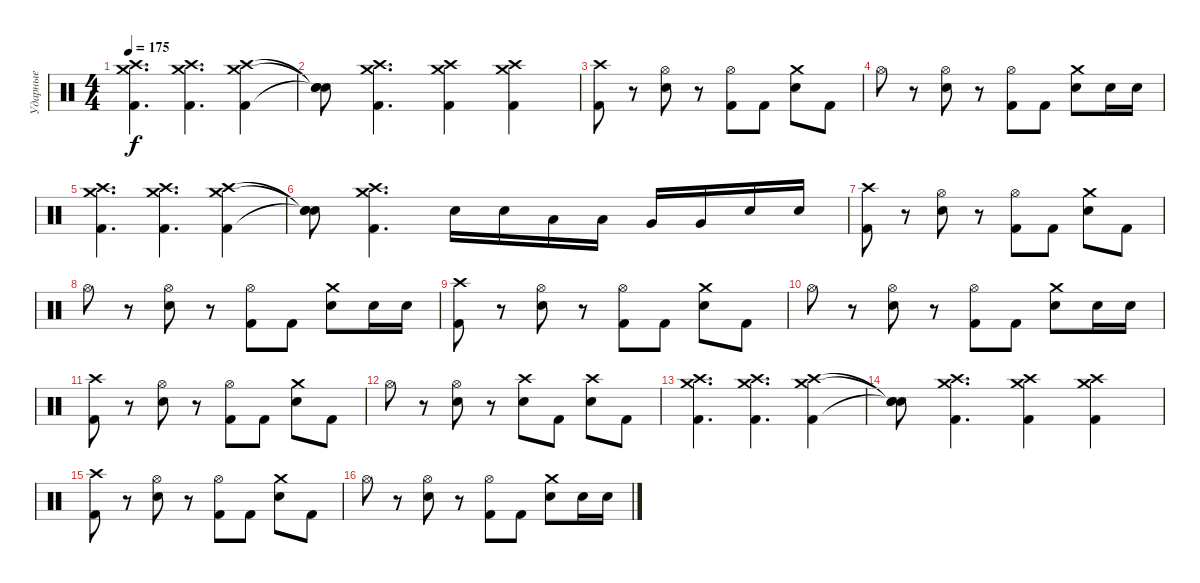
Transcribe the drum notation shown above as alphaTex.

\track ("Ударные" "Ударные") {instrument percussion}
\staff
\articulation defaults
\ts (4 4)
\tempo 175
\clef neutral
\ks c
("Kick (hit) 2" "Crash high (hit)" "Crash medium (hit)").4{d dy f} ("Kick (hit) 2" "Crash high (hit)" "Crash medium (hit)").4{d} ("Kick (hit) 2" "Crash high (hit)" "Crash medium (hit)").4 |
("Snare (hit)"{t} "Snare (hit)"{t} "Snare (hit)"{t}).8 ("Kick (hit) 2" "Crash high (hit)" "Crash medium (hit)").4{d} ("Kick (hit) 2" "Crash high (hit)" "Crash medium (hit)").4 ("Kick (hit) 2" "Crash high (hit)" "Crash medium (hit)").4 |
("Kick (hit) 2" "Crash high (hit)").8 r.8 ("Electric Snare (hit)" "Hi-Hat (open)").8 r.8 ("Kick (hit) 2" "Hi-Hat (open)").8 "Kick (hit) 2".8 ("Electric Snare (hit)" "Crash medium (hit)").8 "Kick (hit) 2".8 |
"Hi-Hat (open)".8 r.8 ("Electric Snare (hit)" "Hi-Hat (open)").8 r.8 ("Kick (hit) 2" "Hi-Hat (open)").8 "Kick (hit) 2".8 ("Electric Snare (hit)" "Crash medium (hit)").8 "Electric Snare (hit)".16 "Electric Snare (hit)".16 |
("Kick (hit) 2" "Crash high (hit)" "Crash medium (hit)").4{d} ("Kick (hit) 2" "Crash high (hit)" "Crash medium (hit)").4{d} ("Kick (hit) 2" "Crash high (hit)" "Crash medium (hit)").4 |
("Snare (hit)"{t} "Snare (hit)"{t} "Snare (hit)"{t}).8 ("Kick (hit) 2" "Crash high (hit)" "Crash medium (hit)").4{d} "Electric Snare (hit)".16 "Electric Snare (hit)".16 "Low Tom (hit)".16 "Low Tom (hit)".16 "Very Low Tom (hit)".16 "Very Low Tom (hit)".16 "Electric Snare (hit)".16 "Electric Snare (hit)".16 |
("Kick (hit) 2" "Crash high (hit)").8 r.8 ("Electric Snare (hit)" "Hi-Hat (open)").8 r.8 ("Kick (hit) 2" "Hi-Hat (open)").8 "Kick (hit) 2".8 ("Electric Snare (hit)" "Crash medium (hit)").8 "Kick (hit) 2".8 |
"Hi-Hat (open)".8 r.8 ("Electric Snare (hit)" "Hi-Hat (open)").8 r.8 ("Kick (hit) 2" "Hi-Hat (open)").8 "Kick (hit) 2".8 ("Electric Snare (hit)" "Crash medium (hit)").8 "Electric Snare (hit)".16 "Electric Snare (hit)".16 |
("Kick (hit) 2" "Crash high (hit)").8 r.8 ("Electric Snare (hit)" "Hi-Hat (open)").8 r.8 ("Kick (hit) 2" "Hi-Hat (open)").8 "Kick (hit) 2".8 ("Electric Snare (hit)" "Crash medium (hit)").8 "Kick (hit) 2".8 |
"Hi-Hat (open)".8 r.8 ("Electric Snare (hit)" "Hi-Hat (open)").8 r.8 ("Kick (hit) 2" "Hi-Hat (open)").8 "Kick (hit) 2".8 ("Electric Snare (hit)" "Crash medium (hit)").8 "Electric Snare (hit)".16 "Electric Snare (hit)".16 |
("Kick (hit) 2" "Crash high (hit)").8 r.8 ("Electric Snare (hit)" "Hi-Hat (open)").8 r.8 ("Kick (hit) 2" "Hi-Hat (open)").8 "Kick (hit) 2".8 ("Electric Snare (hit)" "Crash medium (hit)").8 "Kick (hit) 2".8 |
"Hi-Hat (open)".8 r.8 ("Electric Snare (hit)" "Hi-Hat (open)").8 r.8 ("Electric Snare (hit)" "Crash high (hit)").8 "Kick (hit) 2".8 ("Electric Snare (hit)" "Crash high (hit)").8 "Kick (hit) 2".8 |
("Kick (hit) 2" "Crash high (hit)" "Crash medium (hit)").4{d} ("Kick (hit) 2" "Crash high (hit)" "Crash medium (hit)").4{d} ("Kick (hit) 2" "Crash high (hit)" "Crash medium (hit)").4 |
("Snare (hit)"{t} "Snare (hit)"{t} "Snare (hit)"{t}).8 ("Kick (hit) 2" "Crash high (hit)" "Crash medium (hit)").4{d} ("Kick (hit) 2" "Crash high (hit)" "Crash medium (hit)").4 ("Kick (hit) 2" "Crash high (hit)" "Crash medium (hit)").4 |
("Kick (hit) 2" "Crash high (hit)").8 r.8 ("Electric Snare (hit)" "Hi-Hat (open)").8 r.8 ("Kick (hit) 2" "Hi-Hat (open)").8 "Kick (hit) 2".8 ("Electric Snare (hit)" "Crash medium (hit)").8 "Kick (hit) 2".8 |
"Hi-Hat (open)".8 r.8 ("Electric Snare (hit)" "Hi-Hat (open)").8 r.8 ("Kick (hit) 2" "Hi-Hat (open)").8 "Kick (hit) 2".8 ("Electric Snare (hit)" "Crash medium (hit)").8 "Electric Snare (hit)".16 "Electric Snare (hit)".16
